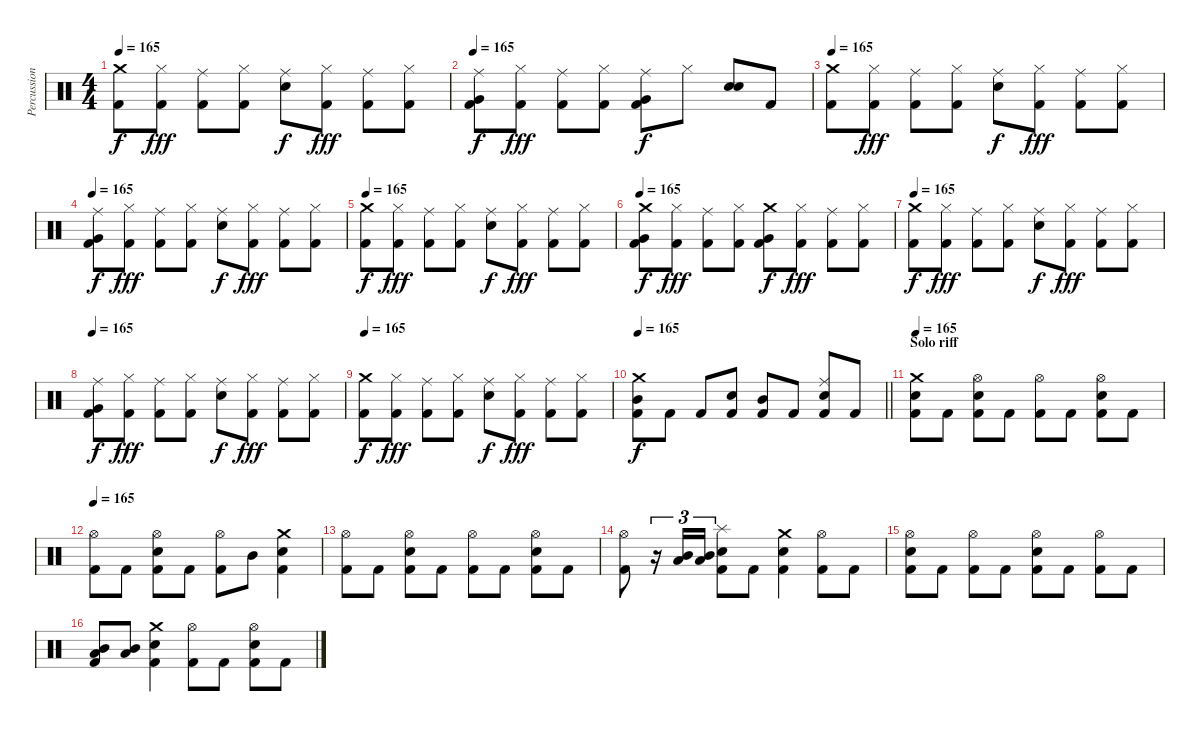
\track ("Percussion" "Percussion") {instrument percussion}
\staff {score}
\articulation defaults
\ts (4 4)
\tempo 165
\clef neutral
\ks c
("Crash medium (hit)" "Kick (hit) 2").8{dy f} ("Hi-Hat (closed)" "Kick (hit) 2").8{dy fff} ("Ride (middle)" "Kick (hit) 2").8 ("Hi-Hat (closed)" "Kick (hit) 2").8 ("Ride (middle)" "Electric Snare (hit)").8{dy f} ("Hi-Hat (closed)" "Kick (hit) 2").8{dy fff} ("Ride (middle)" "Kick (hit) 2").8 ("Hi-Hat (closed)" "Kick (hit) 2").8 |
\tempo 165
("Ride (middle)" "Very Low Tom (hit)" "Kick (hit) 2").8{dy f} ("Hi-Hat (closed)" "Kick (hit) 2").8{dy fff} ("Ride (middle)" "Kick (hit) 2").8 ("Hi-Hat (closed)" "Kick (hit) 2").8 ("Ride (middle)" "Very Low Tom (hit)" "Kick (hit) 2").8{dy f} "Hi-Hat (closed)".8 ("Electric Snare (hit)" "Electric Snare (hit)").8{bd 120} "Kick (hit) 2".8 |
\tempo 165
("Crash medium (hit)" "Kick (hit) 2").8 ("Hi-Hat (closed)" "Kick (hit) 2").8{dy fff} ("Ride (middle)" "Kick (hit) 2").8 ("Hi-Hat (closed)" "Kick (hit) 2").8 ("Ride (middle)" "Electric Snare (hit)").8{dy f} ("Hi-Hat (closed)" "Kick (hit) 2").8{dy fff} ("Ride (middle)" "Kick (hit) 2").8 ("Hi-Hat (closed)" "Kick (hit) 2").8 |
\tempo 165
("Ride (middle)" "Very Low Tom (hit)" "Kick (hit) 2").8{dy f} ("Hi-Hat (closed)" "Kick (hit) 2").8{dy fff} ("Ride (middle)" "Kick (hit) 2").8 ("Hi-Hat (closed)" "Kick (hit) 2").8 ("Ride (middle)" "Electric Snare (hit)").8{dy f} ("Hi-Hat (closed)" "Kick (hit) 2").8{dy fff} ("Ride (middle)" "Kick (hit) 2").8 ("Hi-Hat (closed)" "Kick (hit) 2").8 |
\tempo 165
("Crash medium (hit)" "Kick (hit) 2").8{dy f} ("Hi-Hat (closed)" "Kick (hit) 2").8{dy fff} ("Ride (middle)" "Kick (hit) 2").8 ("Hi-Hat (closed)" "Kick (hit) 2").8 ("Ride (middle)" "Electric Snare (hit)").8{dy f} ("Hi-Hat (closed)" "Kick (hit) 2").8{dy fff} ("Ride (middle)" "Kick (hit) 2").8 ("Hi-Hat (closed)" "Kick (hit) 2").8 |
\tempo 165
("Crash medium (hit)" "Very Low Tom (hit)" "Kick (hit) 2").8{dy f} ("Hi-Hat (closed)" "Kick (hit) 2").8{dy fff} ("Ride (middle)" "Kick (hit) 2").8 ("Hi-Hat (closed)" "Kick (hit) 2").8 ("Crash medium (hit)" "Very Low Tom (hit)" "Kick (hit) 2").8{dy f} ("Hi-Hat (closed)" "Kick (hit) 2").8{dy fff} ("Ride (middle)" "Kick (hit) 2").8 ("Hi-Hat (closed)" "Kick (hit) 2").8 |
\tempo 165
("Crash medium (hit)" "Kick (hit) 2").8{dy f} ("Hi-Hat (closed)" "Kick (hit) 2").8{dy fff} ("Ride (middle)" "Kick (hit) 2").8 ("Hi-Hat (closed)" "Kick (hit) 2").8 ("Ride (middle)" "Electric Snare (hit)").8{dy f} ("Hi-Hat (closed)" "Kick (hit) 2").8{dy fff} ("Ride (middle)" "Kick (hit) 2").8 ("Hi-Hat (closed)" "Kick (hit) 2").8 |
\tempo 165
("Ride (middle)" "Very Low Tom (hit)" "Kick (hit) 2").8{dy f} ("Hi-Hat (closed)" "Kick (hit) 2").8{dy fff} ("Ride (middle)" "Kick (hit) 2").8 ("Hi-Hat (closed)" "Kick (hit) 2").8 ("Ride (middle)" "Electric Snare (hit)").8{dy f} ("Hi-Hat (closed)" "Kick (hit) 2").8{dy fff} ("Ride (middle)" "Kick (hit) 2").8 ("Hi-Hat (closed)" "Kick (hit) 2").8 |
\tempo 165
("Crash medium (hit)" "Kick (hit) 2").8{dy f} ("Hi-Hat (closed)" "Kick (hit) 2").8{dy fff} ("Ride (middle)" "Kick (hit) 2").8 ("Hi-Hat (closed)" "Kick (hit) 2").8 ("Ride (middle)" "Electric Snare (hit)").8{dy f} ("Hi-Hat (closed)" "Kick (hit) 2").8{dy fff} ("Ride (middle)" "Kick (hit) 2").8 ("Hi-Hat (closed)" "Kick (hit) 2").8 |
\tempo 165
\barLineRight lightlight
("Crash medium (hit)" "Mid Tom (hit)" "Kick (hit) 2").8{dy f} "Kick (hit) 2".8 "Kick (hit) 2".8 ("Electric Snare (hit)" "Kick (hit) 2").8 ("Mid Tom (hit)" "Kick (hit) 2").8 "Kick (hit) 2".8 ("Ride (middle)" "Electric Snare (hit)" "Kick (hit) 2").8 "Kick (hit) 2".8 |
\section ("" "Solo riff")
\tempo 165
("Crash medium (hit)" "Electric Snare (hit)" "Kick (hit) 2").8 "Kick (hit) 2".8 ("Hi-Hat (open)" "Electric Snare (hit)" "Kick (hit) 2").8 "Kick (hit) 2".8 ("Hi-Hat (open)" "Kick (hit) 2").8 "Kick (hit) 2".8 ("Hi-Hat (open)" "Electric Snare (hit)" "Kick (hit) 2").8 "Kick (hit) 2".8 |
\tempo 165
("Hi-Hat (open)" "Kick (hit) 2").8 "Kick (hit) 2".8 ("Hi-Hat (open)" "Electric Snare (hit)" "Kick (hit) 2").8 "Kick (hit) 2".8 ("Hi-Hat (open)" "Kick (hit) 2").8 "Mid Tom (hit)".8 ("Crash medium (hit)" "Electric Snare (hit)" "Kick (hit) 2").4 |
("Hi-Hat (open)" "Kick (hit) 2").8 "Kick (hit) 2".8 ("Hi-Hat (open)" "Electric Snare (hit)" "Kick (hit) 2").8 "Kick (hit) 2".8 ("Hi-Hat (open)" "Kick (hit) 2").8 "Kick (hit) 2".8 ("Hi-Hat (open)" "Electric Snare (hit)" "Kick (hit) 2").8 "Kick (hit) 2".8 |
("Hi-Hat (open)" "Kick (hit) 2").8 r.16{tu (3 2)} ("Mid Tom (hit)" "Low Tom (hit)").16{tu (3 2)} ("Mid Tom (hit)" "Low Tom (hit)").16{tu (3 2)} ("Splash (hit)" "Electric Snare (hit)" "Kick (hit) 2").8 "Kick (hit) 2".8 ("Crash medium (hit)" "Electric Snare (hit)" "Kick (hit) 2").4 ("Hi-Hat (open)" "Kick (hit) 2").8 "Kick (hit) 2".8 |
("Hi-Hat (open)" "Electric Snare (hit)" "Kick (hit) 2").8 "Kick (hit) 2".8 ("Hi-Hat (open)" "Kick (hit) 2").8 "Kick (hit) 2".8 ("Hi-Hat (open)" "Electric Snare (hit)" "Kick (hit) 2").8 "Kick (hit) 2".8 ("Hi-Hat (open)" "Kick (hit) 2").8 "Kick (hit) 2".8 |
("Mid Tom (hit)" "Low Tom (hit)" "Kick (hit) 2").8 ("Mid Tom (hit)" "Low Tom (hit)").8 ("Crash medium (hit)" "Electric Snare (hit)" "Kick (hit) 2").4 ("Hi-Hat (open)" "Kick (hit) 2").8 "Kick (hit) 2".8 ("Hi-Hat (open)" "Electric Snare (hit)" "Kick (hit) 2").8 "Kick (hit) 2".8
